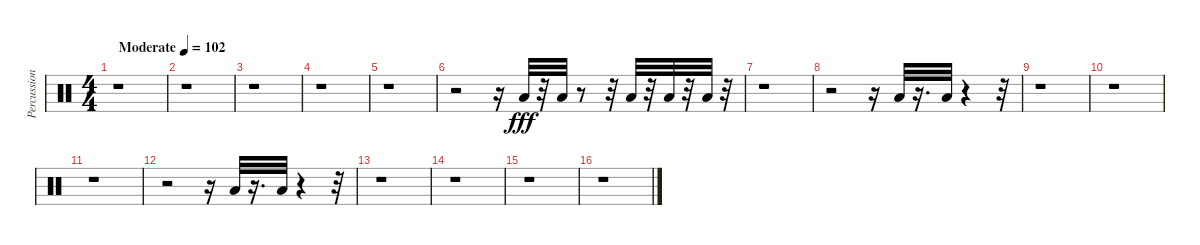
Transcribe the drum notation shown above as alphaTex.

\track ("Percussion" "Percussion") {instrument percussion}
\staff {score}
\articulation defaults
\ts (4 4)
\tempo (102 "Moderate")
\clef neutral
\ks c
r.1{dy fff} |
r.1 |
r.1 |
r.1 |
r.1 |
r.2 r.16 "Low Tom (hit)".32 r.32 "Low Floor Tom (hit)".32 r.8 r.32 "Low Tom (hit)".32 r.32 "Low Floor Tom (hit)".32 r.32 "Low Floor Tom (hit)".32 r.32 |
r.1 |
r.2 r.16 "Low Tom (hit)".32 r.16{d} "Low Floor Tom (hit)".32 r.4 r.32 |
r.1 |
r.1 |
r.1 |
r.2 r.16 "Low Tom (hit)".32 r.16{d} "Low Floor Tom (hit)".32 r.4 r.32 |
r.1 |
r.1 |
r.1 |
r.1
